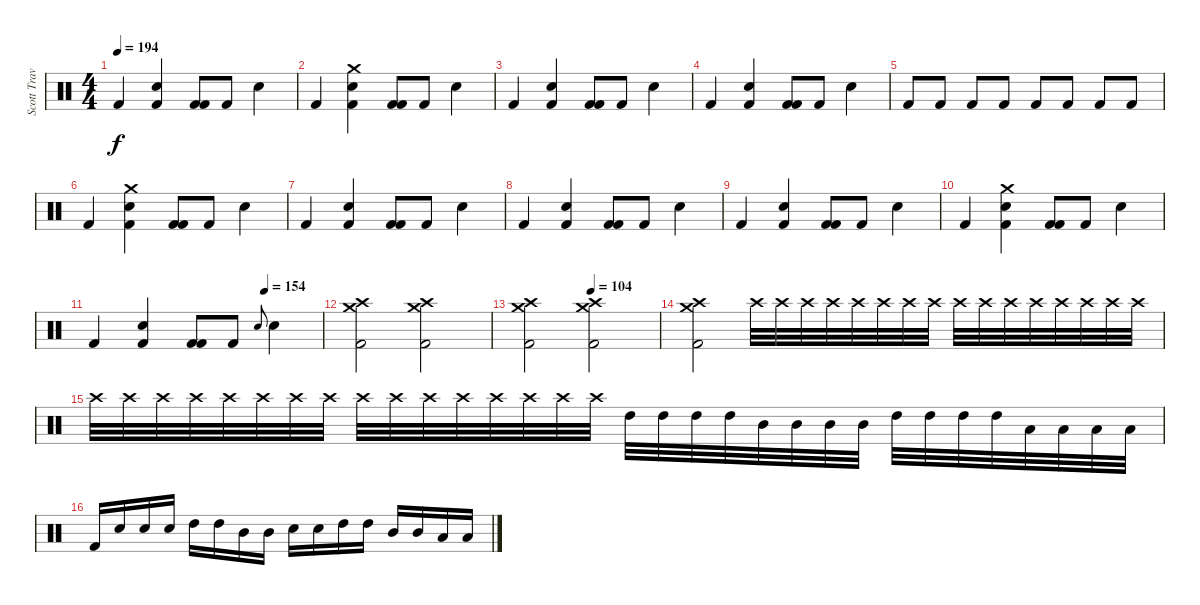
\track ("Scott Travis" "Scott Trav") {instrument percussion}
\staff {score}
\articulation defaults
\ts (4 4)
\tempo 194
\clef neutral
\ks c "Kick (hit) 2".4{dy f}
("Kick (hit) 2" "Snare (hit) 2").4 ("Kick (hit) 2" "Kick (hit) 2").8 "Kick (hit) 2".8 "Snare (hit) 2".4 |
"Kick (hit) 2".4 ("Kick (hit) 2" "Crash medium (hit)" "Snare (hit) 2").4 ("Kick (hit) 2" "Kick (hit) 2").8 "Kick (hit) 2".8 "Snare (hit) 2".4 |
"Kick (hit) 2".4 ("Kick (hit) 2" "Snare (hit) 2").4 ("Kick (hit) 2" "Kick (hit) 2").8 "Kick (hit) 2".8 "Snare (hit) 2".4 |
"Kick (hit) 2".4 ("Kick (hit) 2" "Snare (hit) 2").4 ("Kick (hit) 2" "Kick (hit) 2").8 "Kick (hit) 2".8 "Snare (hit) 2".4 |
"Kick (hit) 2".8 "Kick (hit) 2".8 "Kick (hit) 2".8 "Kick (hit) 2".8 "Kick (hit) 2".8 "Kick (hit) 2".8 "Kick (hit) 2".8 "Kick (hit) 2".8 |
"Kick (hit) 2".4 ("Kick (hit) 2" "Crash medium (hit)" "Snare (hit) 2").4 ("Kick (hit) 2" "Kick (hit) 2").8 "Kick (hit) 2".8 "Snare (hit) 2".4 |
"Kick (hit) 2".4 ("Kick (hit) 2" "Snare (hit) 2").4 ("Kick (hit) 2" "Kick (hit) 2").8 "Kick (hit) 2".8 "Snare (hit) 2".4 |
"Kick (hit) 2".4 ("Kick (hit) 2" "Snare (hit) 2").4 ("Kick (hit) 2" "Kick (hit) 2").8 "Kick (hit) 2".8 "Snare (hit) 2".4 |
"Kick (hit) 2".4 ("Kick (hit) 2" "Snare (hit) 2").4 ("Kick (hit) 2" "Kick (hit) 2").8 "Kick (hit) 2".8 "Snare (hit) 2".4 |
"Kick (hit) 2".4 ("Kick (hit) 2" "Crash medium (hit)" "Snare (hit) 2").4 ("Kick (hit) 2" "Kick (hit) 2").8 "Kick (hit) 2".8 "Snare (hit) 2".4 |
\tempo (154 0.75)
"Kick (hit) 2".4 ("Kick (hit) 2" "Snare (hit) 2").4 ("Kick (hit) 2" "Kick (hit) 2").8 "Kick (hit) 2".8 "Snare (hit) 2".8{gr onbeat} "Snare (hit) 2".4 |
("Crash high (hit)" "Crash medium (hit)" "Kick (hit) 2").2 ("Crash medium (hit)" "Crash high (hit)" "Kick (hit) 2").2 |
\tempo (104 0.5)
("Crash high (hit)" "Crash medium (hit)" "Kick (hit) 2").2 ("Crash medium (hit)" "Crash high (hit)" "Kick (hit) 2").2 |
("Crash high (hit)" "Crash medium (hit)" "Kick (hit) 2").2 "Crash high (hit)".32 "Crash high (hit)".32 "Crash high (hit)".32 "Crash high (hit)".32 "Crash high (hit)".32 "Crash high (hit)".32 "Crash high (hit)".32 "Crash high (hit)".32 "Crash high (hit)".32 "Crash high (hit)".32 "Crash high (hit)".32 "Crash high (hit)".32 "Crash high (hit)".32 "Crash high (hit)".32 "Crash high (hit)".32 "Crash high (hit)".32 |
"Crash high (hit)".32 "Crash high (hit)".32 "Crash high (hit)".32 "Crash high (hit)".32 "Crash high (hit)".32 "Crash high (hit)".32 "Crash high (hit)".32 "Crash high (hit)".32 "Crash high (hit)".32 "Crash high (hit)".32 "Crash high (hit)".32 "Crash high (hit)".32 "Crash high (hit)".32 "Crash high (hit)".32 "Crash high (hit)".32 "Crash high (hit)".32 "High Tom (hit)".32 "High Tom (hit)".32 "High Tom (hit)".32 "High Tom (hit)".32 "Mid Tom (hit)".32 "Mid Tom (hit)".32 "Mid Tom (hit)".32 "Mid Tom (hit)".32 "High Tom (hit)".32 "High Tom (hit)".32 "High Tom (hit)".32 "High Tom (hit)".32 "Low Tom (hit)".32 "Low Tom (hit)".32 "Low Tom (hit)".32 "Low Tom (hit)".32 |
"Kick (hit) 2".16 "Snare (hit) 2".16 "Snare (hit) 2".16 "Snare (hit) 2".16 "High Tom (hit)".16 "High Tom (hit)".16 "Mid Tom (hit)".16 "Mid Tom (hit)".16 "Snare (hit) 2".16 "Snare (hit) 2".16 "High Tom (hit)".16 "High Tom (hit)".16 "Mid Tom (hit)".16 "Mid Tom (hit)".16 "Low Tom (hit)".16 "Low Tom (hit)".16
